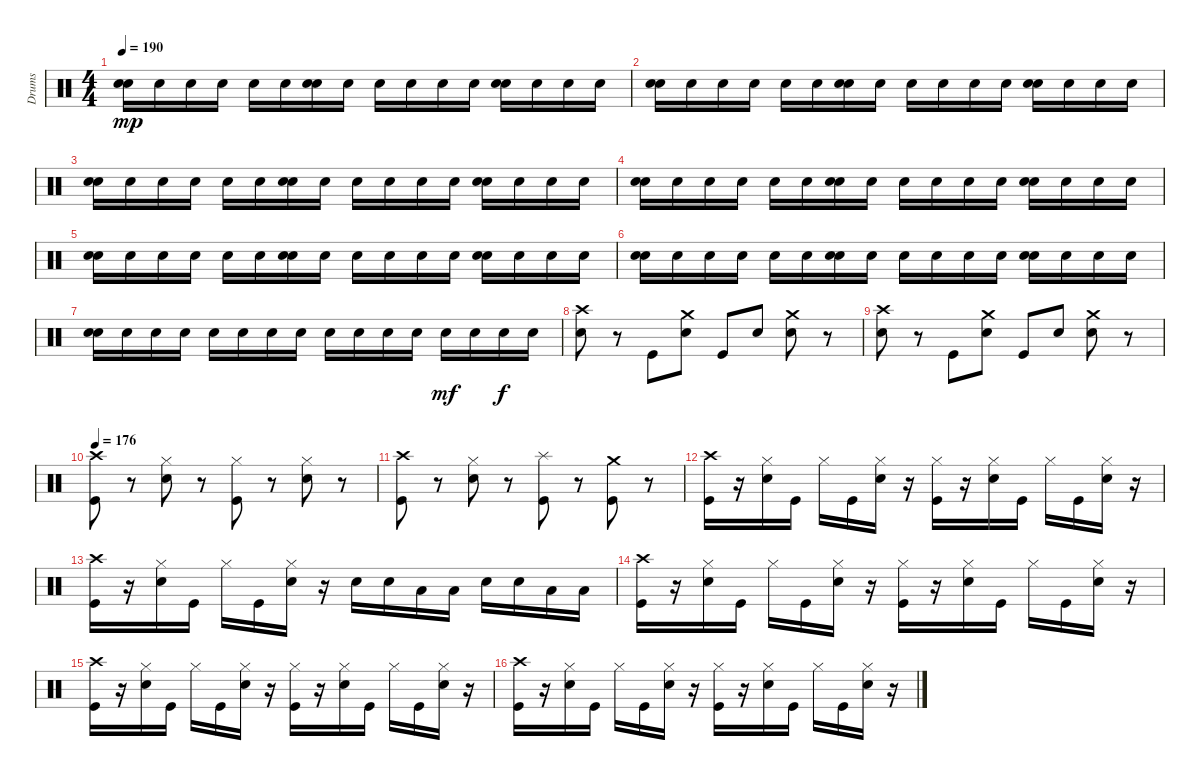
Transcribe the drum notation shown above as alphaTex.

\track ("Drums" "Drums") {instrument percussion}
\staff {score}
\articulation defaults
\ts (4 4)
\tempo 190
\clef neutral
\ks c
("Snare (hit) 2" "Snare (hit) 2").16{dy mp} "Snare (hit) 2".16 "Snare (hit) 2".16 "Snare (hit) 2".16 "Snare (hit) 2".16 "Snare (hit) 2".16 ("Snare (hit) 2" "Snare (hit) 2").16 "Snare (hit) 2".16 "Snare (hit) 2".16 "Snare (hit) 2".16 "Snare (hit) 2".16 "Snare (hit) 2".16 ("Snare (hit) 2" "Snare (hit) 2").16 "Snare (hit) 2".16 "Snare (hit) 2".16 "Snare (hit) 2".16 |
("Snare (hit) 2" "Snare (hit) 2").16 "Snare (hit) 2".16 "Snare (hit) 2".16 "Snare (hit) 2".16 "Snare (hit) 2".16 "Snare (hit) 2".16 ("Snare (hit) 2" "Snare (hit) 2").16 "Snare (hit) 2".16 "Snare (hit) 2".16 "Snare (hit) 2".16 "Snare (hit) 2".16 "Snare (hit) 2".16 ("Snare (hit) 2" "Snare (hit) 2").16 "Snare (hit) 2".16 "Snare (hit) 2".16 "Snare (hit) 2".16 |
("Snare (hit) 2" "Snare (hit) 2").16 "Snare (hit) 2".16 "Snare (hit) 2".16 "Snare (hit) 2".16 "Snare (hit) 2".16 "Snare (hit) 2".16 ("Snare (hit) 2" "Snare (hit) 2").16 "Snare (hit) 2".16 "Snare (hit) 2".16 "Snare (hit) 2".16 "Snare (hit) 2".16 "Snare (hit) 2".16 ("Snare (hit) 2" "Snare (hit) 2").16 "Snare (hit) 2".16 "Snare (hit) 2".16 "Snare (hit) 2".16 |
("Snare (hit) 2" "Snare (hit) 2").16 "Snare (hit) 2".16 "Snare (hit) 2".16 "Snare (hit) 2".16 "Snare (hit) 2".16 "Snare (hit) 2".16 ("Snare (hit) 2" "Snare (hit) 2").16 "Snare (hit) 2".16 "Snare (hit) 2".16 "Snare (hit) 2".16 "Snare (hit) 2".16 "Snare (hit) 2".16 ("Snare (hit) 2" "Snare (hit) 2").16 "Snare (hit) 2".16 "Snare (hit) 2".16 "Snare (hit) 2".16 |
("Snare (hit) 2" "Snare (hit) 2").16 "Snare (hit) 2".16 "Snare (hit) 2".16 "Snare (hit) 2".16 "Snare (hit) 2".16 "Snare (hit) 2".16 ("Snare (hit) 2" "Snare (hit) 2").16 "Snare (hit) 2".16 "Snare (hit) 2".16 "Snare (hit) 2".16 "Snare (hit) 2".16 "Snare (hit) 2".16 ("Snare (hit) 2" "Snare (hit) 2").16 "Snare (hit) 2".16 "Snare (hit) 2".16 "Snare (hit) 2".16 |
("Snare (hit) 2" "Snare (hit) 2").16 "Snare (hit) 2".16 "Snare (hit) 2".16 "Snare (hit) 2".16 "Snare (hit) 2".16 "Snare (hit) 2".16 ("Snare (hit) 2" "Snare (hit) 2").16 "Snare (hit) 2".16 "Snare (hit) 2".16 "Snare (hit) 2".16 "Snare (hit) 2".16 "Snare (hit) 2".16 ("Snare (hit) 2" "Snare (hit) 2").16 "Snare (hit) 2".16 "Snare (hit) 2".16 "Snare (hit) 2".16 |
("Snare (hit) 2" "Snare (hit) 2").16 "Snare (hit) 2".16 "Snare (hit) 2".16 "Snare (hit) 2".16 "Snare (hit) 2".16 "Snare (hit) 2".16 "Snare (hit) 2".16 "Snare (hit) 2".16 "Snare (hit) 2".16 "Snare (hit) 2".16 "Snare (hit) 2".16 "Snare (hit) 2".16 "Snare (hit) 2".16{dy mf} "Snare (hit) 2".16 "Snare (hit) 2".16{dy f} "Snare (hit) 2".16 |
("Crash high (hit)" "Snare (hit) 2").8 r.8 "Kick (hit)".8 ("Crash medium (hit)" "Snare (hit) 2").8 "Kick (hit)".8 "Snare (hit) 2".8 ("Crash medium (hit)" "Snare (hit) 2").8 r.8 |
("Crash high (hit)" "Snare (hit) 2").8 r.8 "Kick (hit)".8 ("Crash medium (hit)" "Snare (hit) 2").8 "Kick (hit)".8 "Snare (hit) 2".8 ("Crash medium (hit)" "Snare (hit) 2").8 r.8 |
\tempo 176
("Crash high (hit)" "Kick (hit)").8 r.8 ("Hi-Hat (closed)" "Snare (hit) 2").8 r.8 ("Hi-Hat (closed)" "Kick (hit)").8 r.8 ("Hi-Hat (closed)" "Snare (hit) 2").8 r.8 |
("Crash high (hit)" "Kick (hit)").8 r.8 ("Hi-Hat (closed)" "Snare (hit) 2").8 r.8 ("Splash (hit)" "Kick (hit)").8 r.8 ("Crash medium (hit)" "Kick (hit)").8 r.8 |
("Crash high (hit)" "Kick (hit)").16 r.16 ("Hi-Hat (closed)" "Snare (hit) 2").16 "Kick (hit)".16 "Hi-Hat (closed)".16 "Kick (hit)".16 ("Hi-Hat (closed)" "Snare (hit) 2").16 r.16 ("Hi-Hat (closed)" "Kick (hit)").16 r.16 ("Hi-Hat (closed)" "Snare (hit) 2").16 "Kick (hit)".16 "Hi-Hat (closed)".16 "Kick (hit)".16 ("Hi-Hat (closed)" "Snare (hit) 2").16 r.16 |
("Crash high (hit)" "Kick (hit)").16 r.16 ("Hi-Hat (closed)" "Snare (hit) 2").16 "Kick (hit)".16 "Hi-Hat (closed)".16 "Kick (hit)".16 ("Hi-Hat (closed)" "Snare (hit) 2").16 r.16 "Snare (hit) 2".16 "Snare (hit) 2".16 "Low Tom (hit)".16 "Low Tom (hit)".16 "Snare (hit) 2".16 "Snare (hit) 2".16 "Low Tom (hit)".16 "Low Tom (hit)".16 |
("Crash high (hit)" "Kick (hit)").16 r.16 ("Hi-Hat (closed)" "Snare (hit) 2").16 "Kick (hit)".16 "Hi-Hat (closed)".16 "Kick (hit)".16 ("Hi-Hat (closed)" "Snare (hit) 2").16 r.16 ("Hi-Hat (closed)" "Kick (hit)").16 r.16 ("Hi-Hat (closed)" "Snare (hit) 2").16 "Kick (hit)".16 "Hi-Hat (closed)".16 "Kick (hit)".16 ("Hi-Hat (closed)" "Snare (hit) 2").16 r.16 |
("Crash high (hit)" "Kick (hit)").16 r.16 ("Hi-Hat (closed)" "Snare (hit) 2").16 "Kick (hit)".16 "Hi-Hat (closed)".16 "Kick (hit)".16 ("Hi-Hat (closed)" "Snare (hit) 2").16 r.16 ("Hi-Hat (closed)" "Kick (hit)").16 r.16 ("Hi-Hat (closed)" "Snare (hit) 2").16 "Kick (hit)".16 "Hi-Hat (closed)".16 "Kick (hit)".16 ("Hi-Hat (closed)" "Snare (hit) 2").16 r.16 |
("Crash high (hit)" "Kick (hit)").16 r.16 ("Hi-Hat (closed)" "Snare (hit) 2").16 "Kick (hit)".16 "Hi-Hat (closed)".16 "Kick (hit)".16 ("Hi-Hat (closed)" "Snare (hit) 2").16 r.16 ("Hi-Hat (closed)" "Kick (hit)").16 r.16 ("Hi-Hat (closed)" "Snare (hit) 2").16 "Kick (hit)".16 "Hi-Hat (closed)".16 "Kick (hit)".16 ("Hi-Hat (closed)" "Snare (hit) 2").16 r.16
